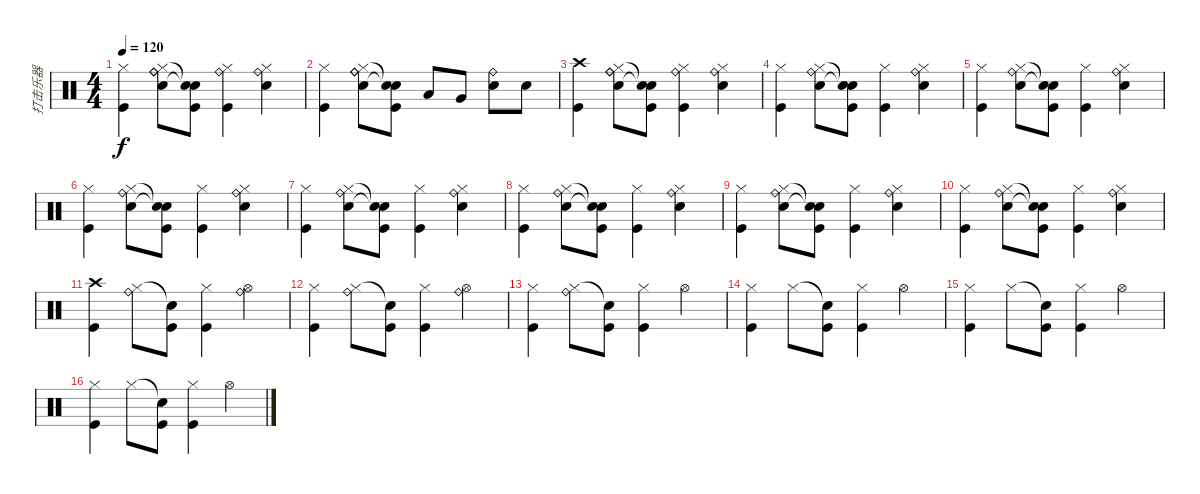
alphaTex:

\track ("打击乐器" "打击乐器") {instrument percussion}
\staff {score}
\articulation defaults
\ts (4 4)
\tempo 120
\clef neutral
\ks c
("Hi-Hat (closed)" "Kick (hit)").4{dy f} ("Hi-Hat (closed)" "Snare (hit) 2" "Ride (bell)" "Ride (bell)").8 ("Snare (hit)"{t} "Snare (hit)"{t} "Kick (hit)").8 ("Hi-Hat (closed)" "Ride (bell)" "Kick (hit)").4 ("Hi-Hat (closed)" "Snare (hit) 2" "Ride (bell)").4 |
("Hi-Hat (closed)" "Kick (hit)").4 ("Hi-Hat (closed)" "Snare (hit) 2" "Ride (bell)" "Ride (bell)").8 ("Snare (hit)"{t} "Snare (hit)"{t} "Kick (hit)").8 "Low Tom (hit)".8 "Very Low Tom (hit)".8 ("Snare (hit) 2" "Ride (bell)").8 "Snare (hit) 2".8 |
("Crash high (hit)" "Kick (hit)").4 ("Hi-Hat (closed)" "Snare (hit) 2" "Ride (bell)" "Ride (bell)").8 ("Snare (hit)"{t} "Snare (hit)"{t} "Kick (hit)").8 ("Hi-Hat (closed)" "Ride (bell)" "Kick (hit)").4 ("Hi-Hat (closed)" "Snare (hit) 2" "Ride (bell)").4 |
("Hi-Hat (closed)" "Kick (hit)").4 ("Hi-Hat (closed)" "Snare (hit) 2" "Ride (bell)").8 ("Snare (hit)"{t} "Snare (hit)"{t} "Kick (hit)").8 ("Hi-Hat (closed)" "Kick (hit)").4 ("Hi-Hat (closed)" "Snare (hit) 2" "Ride (bell)").4 |
("Hi-Hat (closed)" "Kick (hit)").4 ("Hi-Hat (closed)" "Snare (hit) 2" "Ride (bell)").8 ("Snare (hit)"{t} "Snare (hit)"{t} "Kick (hit)").8 ("Hi-Hat (closed)" "Kick (hit)").4 ("Hi-Hat (closed)" "Snare (hit) 2" "Ride (bell)").4 |
("Hi-Hat (closed)" "Kick (hit)").4 ("Hi-Hat (closed)" "Snare (hit) 2" "Ride (bell)").8 ("Snare (hit)"{t} "Snare (hit)"{t} "Kick (hit)").8 ("Hi-Hat (closed)" "Kick (hit)").4 ("Hi-Hat (closed)" "Snare (hit) 2" "Ride (bell)").4 |
("Hi-Hat (closed)" "Kick (hit)").4 ("Hi-Hat (closed)" "Snare (hit) 2" "Ride (bell)").8 ("Snare (hit)"{t} "Snare (hit)"{t} "Kick (hit)").8 ("Hi-Hat (closed)" "Kick (hit)").4 ("Hi-Hat (closed)" "Snare (hit) 2" "Ride (bell)").4 |
("Hi-Hat (closed)" "Kick (hit)").4 ("Hi-Hat (closed)" "Snare (hit) 2" "Ride (bell)").8 ("Snare (hit)"{t} "Snare (hit)"{t} "Kick (hit)").8 ("Hi-Hat (closed)" "Kick (hit)").4 ("Hi-Hat (closed)" "Snare (hit) 2" "Ride (bell)").4 |
("Hi-Hat (closed)" "Kick (hit)").4 ("Hi-Hat (closed)" "Snare (hit) 2" "Ride (bell)").8 ("Snare (hit)"{t} "Snare (hit)"{t} "Kick (hit)").8 ("Hi-Hat (closed)" "Kick (hit)").4 ("Hi-Hat (closed)" "Snare (hit) 2" "Ride (bell)").4 |
("Hi-Hat (closed)" "Kick (hit)").4 ("Hi-Hat (closed)" "Snare (hit) 2" "Ride (bell)").8 ("Snare (hit)"{t} "Snare (hit)"{t} "Kick (hit)").8 ("Hi-Hat (closed)" "Kick (hit)").4 ("Hi-Hat (closed)" "Snare (hit) 2" "Ride (bell)").4 |
("Crash high (hit)" "Kick (hit)").4 ("Hi-Hat (closed)" "Ride (bell)").8 ("Snare (hit)"{t} "Kick (hit)").8 ("Hi-Hat (closed)" "Kick (hit)").4 ("Hi-Hat (open)" "Ride (bell)").4 |
("Hi-Hat (closed)" "Kick (hit)").4 ("Hi-Hat (closed)" "Ride (bell)").8 ("Snare (hit)"{t} "Kick (hit)").8 ("Hi-Hat (closed)" "Kick (hit)").4 ("Hi-Hat (open)" "Ride (bell)").4 |
("Hi-Hat (closed)" "Kick (hit)").4 ("Hi-Hat (closed)" "Ride (bell)").8 ("Snare (hit)"{t} "Kick (hit)").8 ("Hi-Hat (closed)" "Kick (hit)").4 "Hi-Hat (open)".4 |
("Hi-Hat (closed)" "Kick (hit)").4 "Hi-Hat (closed)".8 ("Snare (hit)"{t} "Kick (hit)").8 ("Hi-Hat (closed)" "Kick (hit)").4 "Hi-Hat (open)".4 |
("Hi-Hat (closed)" "Kick (hit)").4 "Hi-Hat (closed)".8 ("Snare (hit)"{t} "Kick (hit)").8 ("Hi-Hat (closed)" "Kick (hit)").4 "Hi-Hat (open)".4 |
("Hi-Hat (closed)" "Kick (hit)").4 "Hi-Hat (closed)".8 ("Snare (hit)"{t} "Kick (hit)").8 ("Hi-Hat (closed)" "Kick (hit)").4 "Hi-Hat (open)".4
